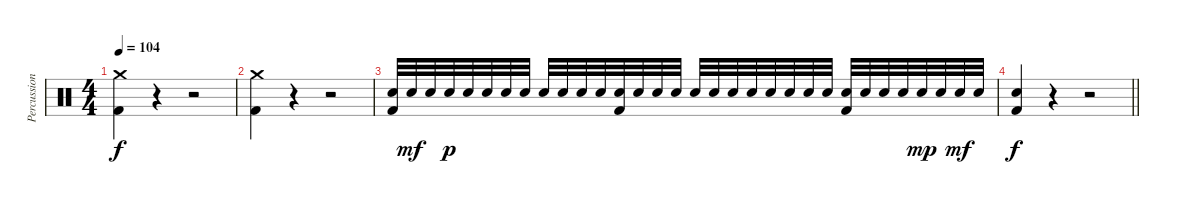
\track ("Percussion" "Percussion") {instrument percussion}
\staff {score}
\articulation defaults
\ts (4 4)
\tempo 104
\clef neutral
\ks c
("Crash medium (hit)" "Kick (hit) 2").4{dy f} r.4 r.2 |
("Crash medium (hit)" "Kick (hit) 2").4 r.4 r.2 |
("Electric Snare (hit)" "Kick (hit) 2").32 "Electric Snare (hit)".32{dy mf} "Electric Snare (hit)".32 "Electric Snare (hit)".32{dy p} "Electric Snare (hit)".32 "Electric Snare (hit)".32 "Electric Snare (hit)".32 "Electric Snare (hit)".32 "Electric Snare (hit)".32{beam Up} "Electric Snare (hit)".32{beam Up} "Electric Snare (hit)".32{beam Up} "Electric Snare (hit)".32{beam Up} ("Electric Snare (hit)" "Kick (hit) 2").32{beam Up} "Electric Snare (hit)".32{beam Up} "Electric Snare (hit)".32{beam Up} "Electric Snare (hit)".32{beam Up} "Electric Snare (hit)".32{beam Up} "Electric Snare (hit)".32{beam Up} "Electric Snare (hit)".32{beam Up} "Electric Snare (hit)".32{beam Up} "Electric Snare (hit)".32{beam Up} "Electric Snare (hit)".32{beam Up} "Electric Snare (hit)".32{beam Up} "Electric Snare (hit)".32{beam Up} ("Electric Snare (hit)" "Kick (hit) 2").32{beam Up} "Electric Snare (hit)".32{beam Up} "Electric Snare (hit)".32{beam Up} "Electric Snare (hit)".32{beam Up} "Electric Snare (hit)".32{dy mp beam Up} "Electric Snare (hit)".32{beam Up} "Electric Snare (hit)".32{dy mf beam Up} "Electric Snare (hit)".32{beam Up} |
\barLineRight lightlight
("Electric Snare (hit)" "Kick (hit) 2").4{dy f} r.4 r.2
